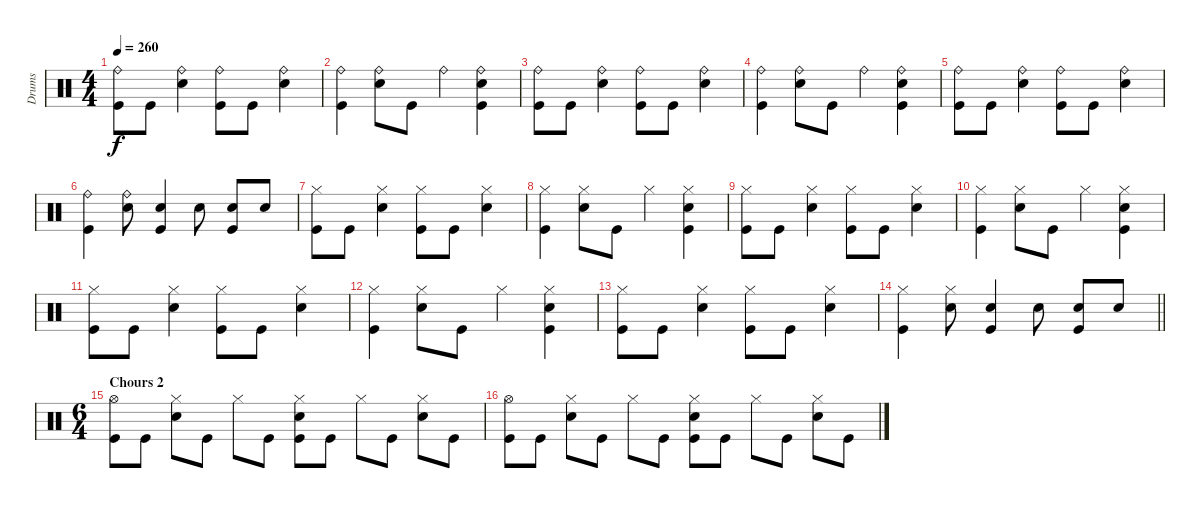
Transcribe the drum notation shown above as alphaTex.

\track ("Drums" "Drums") {instrument percussion}
\staff {score}
\articulation defaults
\ts (4 4)
\tempo 260
\clef neutral
\ks c
("Ride (bell)" "Kick (hit)").8{dy f} "Kick (hit)".8 ("Ride (bell)" "Snare (hit) 2").4 ("Ride (bell)" "Kick (hit)").8 "Kick (hit)".8 ("Ride (bell)" "Snare (hit) 2").4 |
("Ride (bell)" "Kick (hit)").4 ("Ride (bell)" "Snare (hit) 2").8 "Kick (hit)".8 "Ride (bell)".4 ("Ride (bell)" "Snare (hit) 2" "Kick (hit)").4 |
("Ride (bell)" "Kick (hit)").8 "Kick (hit)".8 ("Ride (bell)" "Snare (hit) 2").4 ("Ride (bell)" "Kick (hit)").8 "Kick (hit)".8 ("Ride (bell)" "Snare (hit) 2").4 |
("Ride (bell)" "Kick (hit)").4 ("Ride (bell)" "Snare (hit) 2").8 "Kick (hit)".8 "Ride (bell)".4 ("Ride (bell)" "Snare (hit) 2" "Kick (hit)").4 |
("Ride (bell)" "Kick (hit)").8 "Kick (hit)".8 ("Ride (bell)" "Snare (hit) 2").4 ("Ride (bell)" "Kick (hit)").8 "Kick (hit)".8 ("Ride (bell)" "Snare (hit) 2").4 |
("Ride (bell)" "Kick (hit)").4 ("Ride (bell)" "Snare (hit) 2").8 ("Snare (hit) 2" "Kick (hit)").4 "Snare (hit) 2".8 ("Snare (hit) 2" "Kick (hit)").8 "Snare (hit) 2".8 |
("Hi-Hat (closed)" "Kick (hit)").8 "Kick (hit)".8 ("Hi-Hat (closed)" "Snare (hit) 2").4 ("Hi-Hat (closed)" "Kick (hit)").8 "Kick (hit)".8 ("Hi-Hat (closed)" "Snare (hit) 2").4 |
("Hi-Hat (closed)" "Kick (hit)").4 ("Hi-Hat (closed)" "Snare (hit) 2").8 "Kick (hit)".8 "Hi-Hat (closed)".4 ("Hi-Hat (closed)" "Snare (hit) 2" "Kick (hit)").4 |
("Hi-Hat (closed)" "Kick (hit)").8 "Kick (hit)".8 ("Hi-Hat (closed)" "Snare (hit) 2").4 ("Hi-Hat (closed)" "Kick (hit)").8 "Kick (hit)".8 ("Hi-Hat (closed)" "Snare (hit) 2").4 |
("Hi-Hat (closed)" "Kick (hit)").4 ("Hi-Hat (closed)" "Snare (hit) 2").8 "Kick (hit)".8 "Hi-Hat (closed)".4 ("Hi-Hat (closed)" "Snare (hit) 2" "Kick (hit)").4 |
("Hi-Hat (closed)" "Kick (hit)").8 "Kick (hit)".8 ("Hi-Hat (closed)" "Snare (hit) 2").4 ("Hi-Hat (closed)" "Kick (hit)").8 "Kick (hit)".8 ("Hi-Hat (closed)" "Snare (hit) 2").4 |
("Hi-Hat (closed)" "Kick (hit)").4 ("Hi-Hat (closed)" "Snare (hit) 2").8 "Kick (hit)".8 "Hi-Hat (closed)".4 ("Hi-Hat (closed)" "Snare (hit) 2" "Kick (hit)").4 |
("Hi-Hat (closed)" "Kick (hit)").8 "Kick (hit)".8 ("Hi-Hat (closed)" "Snare (hit) 2").4 ("Hi-Hat (closed)" "Kick (hit)").8 "Kick (hit)".8 ("Hi-Hat (closed)" "Snare (hit) 2").4 |
\barLineRight lightlight
("Hi-Hat (closed)" "Kick (hit)").4 ("Hi-Hat (closed)" "Snare (hit) 2").8 ("Snare (hit) 2" "Kick (hit)").4 "Snare (hit) 2".8 ("Snare (hit) 2" "Kick (hit)").8 "Snare (hit) 2".8 |
\ts (6 4)
\section ("" "Chours 2")
("Hi-Hat (open)" "Kick (hit)").8 "Kick (hit)".8 ("Hi-Hat (closed)" "Snare (hit) 2").8 "Kick (hit)".8 "Hi-Hat (closed)".8 "Kick (hit)".8 ("Hi-Hat (closed)" "Snare (hit) 2" "Kick (hit)").8 "Kick (hit)".8 "Hi-Hat (closed)".8 "Kick (hit)".8 ("Hi-Hat (closed)" "Snare (hit) 2").8 "Kick (hit)".8 |
("Hi-Hat (open)" "Kick (hit)").8 "Kick (hit)".8 ("Hi-Hat (closed)" "Snare (hit) 2").8 "Kick (hit)".8 "Hi-Hat (closed)".8 "Kick (hit)".8 ("Hi-Hat (closed)" "Snare (hit) 2" "Kick (hit)").8 "Kick (hit)".8 "Hi-Hat (closed)".8 "Kick (hit)".8 ("Hi-Hat (closed)" "Snare (hit) 2").8 "Kick (hit)".8
